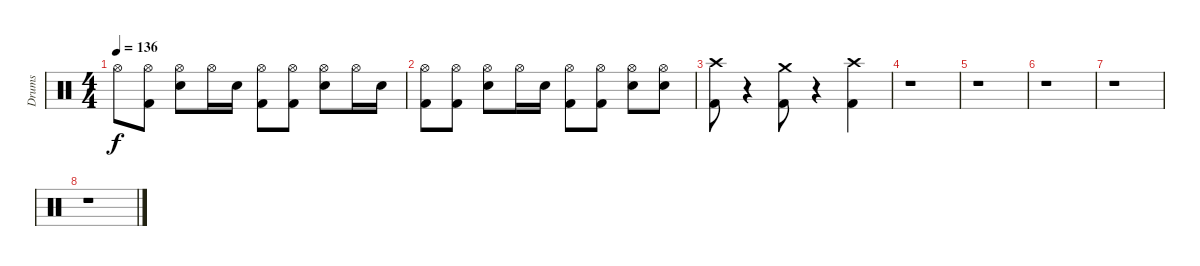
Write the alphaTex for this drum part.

\track ("Drums" "Drums") {instrument percussion}
\staff {score}
\articulation defaults
\ts (4 4)
\tempo 136
\clef neutral
\ks c "Hi-Hat (open)".8{dy f}
("Hi-Hat (open)" "Kick (hit) 2").8 ("Hi-Hat (open)" "Snare (hit) 2").8 "Hi-Hat (open)".16 "Snare (hit) 2".16 ("Hi-Hat (open)" "Kick (hit) 2").8 ("Hi-Hat (open)" "Kick (hit) 2").8 ("Hi-Hat (open)" "Snare (hit) 2").8 "Hi-Hat (open)".16 "Snare (hit) 2".16 |
("Hi-Hat (open)" "Kick (hit) 2").8 ("Hi-Hat (open)" "Kick (hit) 2").8 ("Hi-Hat (open)" "Snare (hit) 2").8 "Hi-Hat (open)".16 "Snare (hit) 2".16 ("Hi-Hat (open)" "Kick (hit) 2").8 ("Hi-Hat (open)" "Kick (hit) 2").8 ("Hi-Hat (open)" "Snare (hit) 2").8 ("Hi-Hat (open)" "Snare (hit) 2").8 |
("Crash high (hit)" "Kick (hit) 2").8 r.4 ("Crash medium (hit)" "Kick (hit) 2").8 r.4 ("Crash high (hit)" "Kick (hit) 2").4 |
r.1 |
r.1 |
r.1 |
r.1 |
r.1
